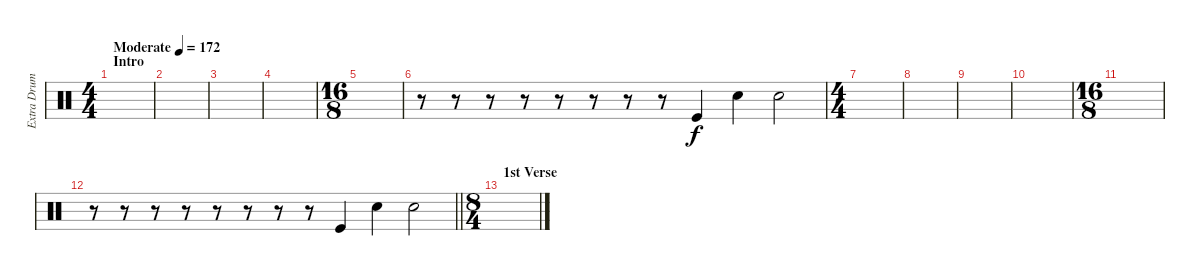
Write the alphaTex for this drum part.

\track ("Extra Drums" "Extra Drum") {instrument percussion}
\staff {score}
\articulation defaults
\ts (4 4)
\section ("" "Intro")
\tempo (172 "Moderate")
\clef neutral
\ks c
|
|
|
|
\ts (16 8)
|
r.8 r.8 r.8 r.8 r.8 r.8 r.8 r.8 "Kick (hit)".4 "Electric Snare (hit)".4 "Snare (hit) 2".2 |
\ts (4 4)
|
|
|
|
\ts (16 8)
|
\barLineRight lightlight
r.8 r.8 r.8 r.8 r.8 r.8 r.8 r.8 "Kick (hit)".4 "Electric Snare (hit)".4 "Snare (hit) 2".2 |
\ts (8 4)
\section ("" "1st Verse")
